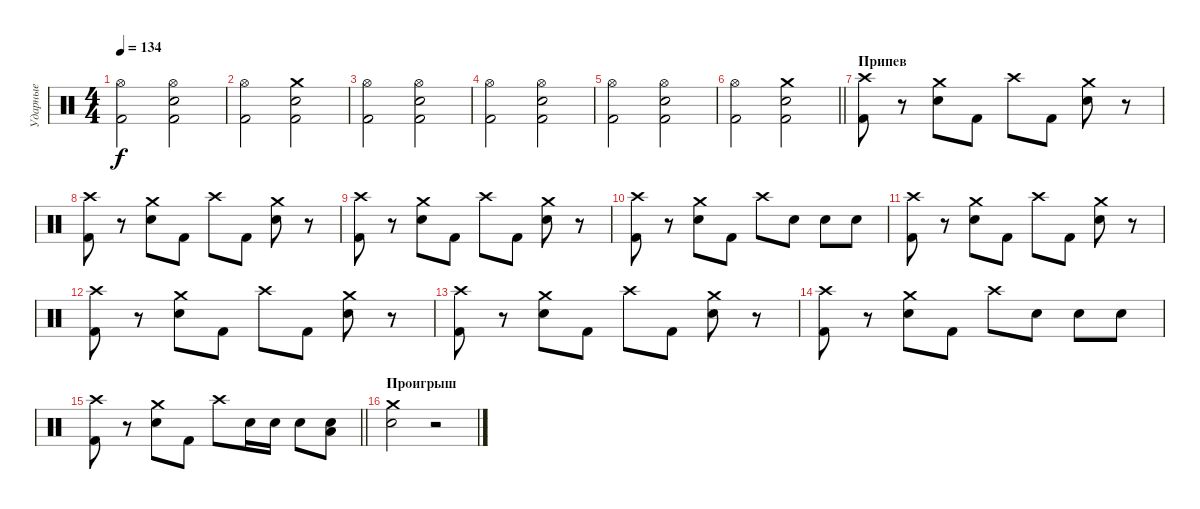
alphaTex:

\track ("Ударные" "Ударные") {instrument percussion}
\staff {score}
\articulation defaults
\ts (4 4)
\tempo 134
\clef neutral
\ks c
("Hi-Hat (open)" "Kick (hit) 2").2{dy f} ("Hi-Hat (open)" "Snare (hit) 2" "Kick (hit) 2").2 |
("Hi-Hat (open)" "Kick (hit) 2").2 ("Crash medium (hit)" "Snare (hit) 2" "Kick (hit) 2").2 |
("Hi-Hat (open)" "Kick (hit) 2").2 ("Hi-Hat (open)" "Snare (hit) 2" "Kick (hit) 2").2 |
("Hi-Hat (open)" "Kick (hit) 2").2 ("Hi-Hat (open)" "Snare (hit) 2" "Kick (hit) 2").2 |
("Hi-Hat (open)" "Kick (hit) 2").2 ("Hi-Hat (open)" "Snare (hit) 2" "Kick (hit) 2").2 |
\barLineRight lightlight
("Hi-Hat (open)" "Kick (hit) 2").2 ("Crash medium (hit)" "Snare (hit) 2" "Kick (hit) 2").2 |
\section ("" "Припев")
("Crash high (hit)" "Kick (hit) 2").8 r.8 ("Crash medium (hit)" "Snare (hit) 2").8 "Kick (hit) 2".8 "Crash high (hit)".8 "Kick (hit) 2".8 ("Crash medium (hit)" "Snare (hit) 2").8 r.8 |
("Crash high (hit)" "Kick (hit) 2").8 r.8 ("Crash medium (hit)" "Snare (hit) 2").8 "Kick (hit) 2".8 "Crash high (hit)".8 "Kick (hit) 2".8 ("Crash medium (hit)" "Snare (hit) 2").8 r.8 |
("Crash high (hit)" "Kick (hit) 2").8 r.8 ("Crash medium (hit)" "Snare (hit) 2").8 "Kick (hit) 2".8 "Crash high (hit)".8 "Kick (hit) 2".8 ("Crash medium (hit)" "Snare (hit) 2").8 r.8 |
("Crash high (hit)" "Kick (hit) 2").8 r.8 ("Crash medium (hit)" "Snare (hit) 2").8 "Kick (hit) 2".8 "Crash high (hit)".8 "Snare (hit) 2".8 "Snare (hit) 2".8 "Snare (hit) 2".8 |
("Crash high (hit)" "Kick (hit) 2").8 r.8 ("Crash medium (hit)" "Snare (hit) 2").8 "Kick (hit) 2".8 "Crash high (hit)".8 "Kick (hit) 2".8 ("Crash medium (hit)" "Snare (hit) 2").8 r.8 |
("Crash high (hit)" "Kick (hit) 2").8 r.8 ("Crash medium (hit)" "Snare (hit) 2").8 "Kick (hit) 2".8 "Crash high (hit)".8 "Kick (hit) 2".8 ("Crash medium (hit)" "Snare (hit) 2").8 r.8 |
("Crash high (hit)" "Kick (hit) 2").8 r.8 ("Crash medium (hit)" "Snare (hit) 2").8 "Kick (hit) 2".8 "Crash high (hit)".8 "Kick (hit) 2".8 ("Crash medium (hit)" "Snare (hit) 2").8 r.8 |
("Crash high (hit)" "Kick (hit) 2").8 r.8 ("Crash medium (hit)" "Snare (hit) 2").8 "Kick (hit) 2".8 "Crash high (hit)".8 "Snare (hit) 2".8 "Snare (hit) 2".8 "Snare (hit) 2".8 |
\barLineRight lightlight
("Crash high (hit)" "Kick (hit) 2").8 r.8 ("Crash medium (hit)" "Snare (hit) 2").8 "Kick (hit) 2".8 "Crash high (hit)".8 "Snare (hit) 2".16 "Snare (hit) 2".16 "Snare (hit) 2".8 ("Low Floor Tom (hit)" "Snare (hit) 2").8 |
\section ("" "Проигрыш")
("Crash medium (hit)" "Snare (hit) 2").2{volume 13} r.2
